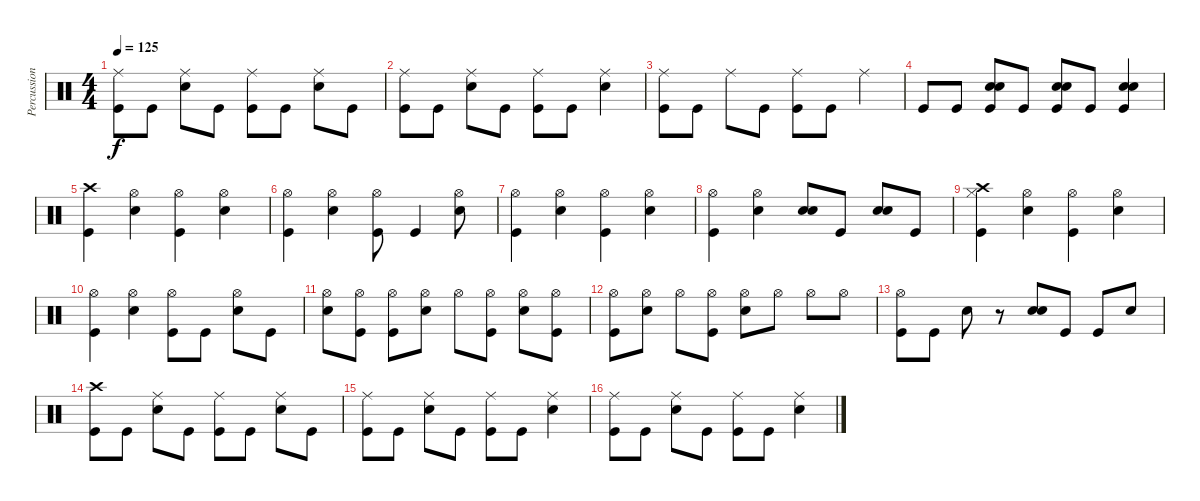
\track ("Percussion" "Percussion") {instrument percussion}
\staff {score}
\articulation defaults
\ts (4 4)
\tempo 125
\clef neutral
\ks c
("Ride (middle)" "Kick (hit)").8{dy f} "Kick (hit)".8 ("Ride (middle)" "Snare (hit) 2").8 "Kick (hit)".8 ("Ride (middle)" "Kick (hit)").8 "Kick (hit)".8 ("Ride (middle)" "Snare (hit) 2").8 "Kick (hit)".8 |
("Ride (middle)" "Kick (hit)").8 "Kick (hit)".8 ("Ride (middle)" "Snare (hit) 2").8 "Kick (hit)".8 ("Ride (middle)" "Kick (hit)").8 "Kick (hit)".8 ("Ride (middle)" "Snare (hit) 2").4 |
("Ride (middle)" "Kick (hit)").8 "Kick (hit)".8 "Ride (middle)".8 "Kick (hit)".8 ("Ride (middle)" "Kick (hit)").8 "Kick (hit)".8 "Ride (middle)".4 |
"Kick (hit)".8 "Kick (hit)".8 ("Snare (hit) 2" "Snare (hit) 2" "Kick (hit)").8 "Kick (hit)".8 ("Snare (hit) 2" "Snare (hit) 2" "Kick (hit)").8 "Kick (hit)".8 ("Snare (hit) 2" "Snare (hit) 2" "Kick (hit)").4 |
("Crash high (hit)" "Kick (hit)").4 ("Hi-Hat (open)" "Snare (hit) 2").4 ("Hi-Hat (open)" "Kick (hit)").4 ("Hi-Hat (open)" "Snare (hit) 2").4 |
("Hi-Hat (open)" "Kick (hit)").4 ("Hi-Hat (open)" "Snare (hit) 2").4 ("Hi-Hat (open)" "Kick (hit)").8 "Kick (hit)".4 ("Hi-Hat (open)" "Snare (hit) 2").8 |
("Hi-Hat (open)" "Kick (hit)").4 ("Hi-Hat (open)" "Snare (hit) 2").4 ("Hi-Hat (open)" "Kick (hit)").4 ("Hi-Hat (open)" "Snare (hit) 2").4 |
("Hi-Hat (open)" "Kick (hit)").4 ("Hi-Hat (open)" "Snare (hit) 2").4 ("Snare (hit) 2" "Snare (hit) 2").8 "Kick (hit)".8 ("Snare (hit) 2" "Snare (hit) 2").8 "Kick (hit)".8 |
("Crash high (hit)" "Hi-Hat (closed)" "Kick (hit)").4 ("Hi-Hat (open)" "Snare (hit) 2").4 ("Hi-Hat (open)" "Kick (hit)").4 ("Hi-Hat (open)" "Snare (hit) 2").4 |
("Hi-Hat (open)" "Kick (hit)").4 ("Hi-Hat (open)" "Snare (hit) 2").4 ("Hi-Hat (open)" "Kick (hit)").8 "Kick (hit)".8 ("Hi-Hat (open)" "Snare (hit) 2").8 "Kick (hit)".8 |
("Hi-Hat (open)" "Snare (hit) 2").8 ("Hi-Hat (open)" "Kick (hit)").8 ("Hi-Hat (open)" "Kick (hit)").8 ("Hi-Hat (open)" "Snare (hit) 2").8 "Hi-Hat (open)".8 ("Hi-Hat (open)" "Kick (hit)").8 ("Hi-Hat (open)" "Snare (hit) 2").8 ("Hi-Hat (open)" "Kick (hit)").8 |
("Hi-Hat (open)" "Kick (hit)").8 ("Hi-Hat (open)" "Snare (hit) 2").8 "Hi-Hat (open)".8 ("Hi-Hat (open)" "Kick (hit)").8 ("Hi-Hat (open)" "Snare (hit) 2").8 "Hi-Hat (open)".8 "Hi-Hat (open)".8 "Hi-Hat (open)".8 |
("Hi-Hat (open)" "Kick (hit)").8 "Kick (hit)".8 "Snare (hit) 2".8 r.8 ("Snare (hit) 2" "Snare (hit) 2").8 "Kick (hit)".8 "Kick (hit)".8 "Snare (hit) 2".8 |
("Crash high (hit)" "Kick (hit)").8 "Kick (hit)".8 ("Ride (middle)" "Snare (hit) 2").8 "Kick (hit)".8 ("Ride (middle)" "Kick (hit)").8 "Kick (hit)".8 ("Ride (middle)" "Snare (hit) 2").8 "Kick (hit)".8 |
("Ride (middle)" "Kick (hit)").8 "Kick (hit)".8 ("Ride (middle)" "Snare (hit) 2").8 "Kick (hit)".8 ("Ride (middle)" "Kick (hit)").8 "Kick (hit)".8 ("Ride (middle)" "Snare (hit) 2").4 |
("Ride (middle)" "Kick (hit)").8 "Kick (hit)".8 ("Ride (middle)" "Snare (hit) 2").8 "Kick (hit)".8 ("Ride (middle)" "Kick (hit)").8 "Kick (hit)".8 ("Ride (middle)" "Snare (hit) 2").4
